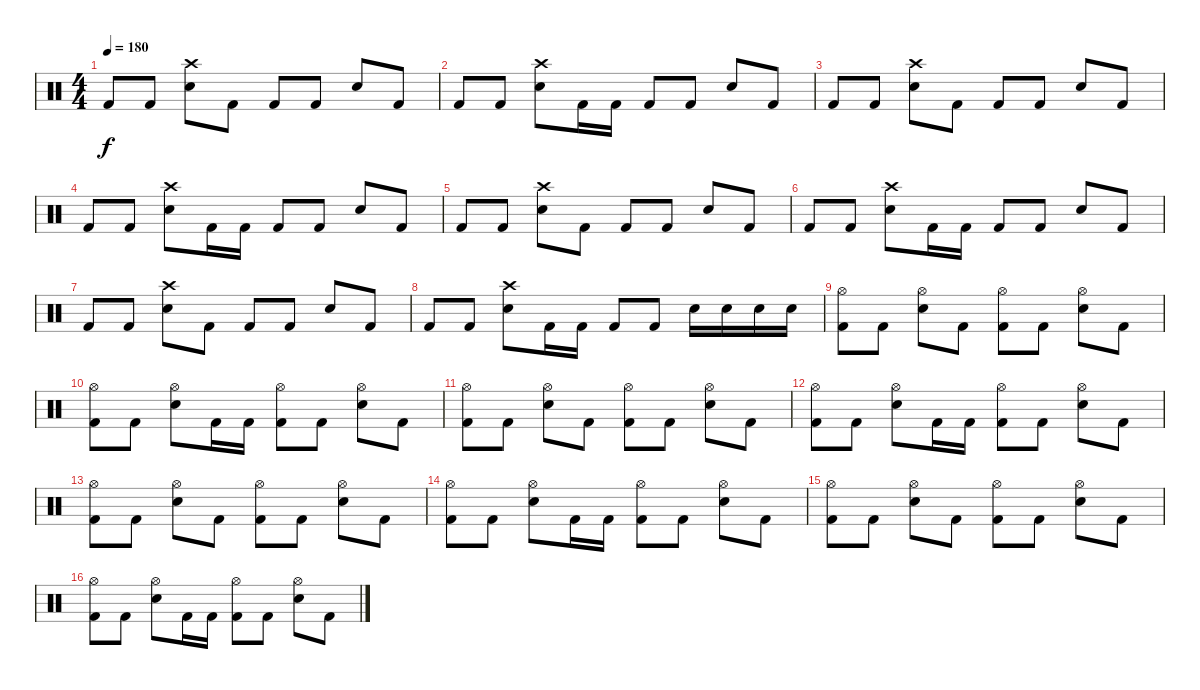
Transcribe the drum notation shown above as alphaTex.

\track "" {instrument percussion}
\staff {score}
\articulation defaults
\ts (4 4)
\tempo 180
\clef neutral
\ks c "Kick (hit) 2".8{dy f} "Kick (hit) 2".8
("Crash high (hit)" "Snare (hit) 2").8 "Kick (hit) 2".8 "Kick (hit) 2".8 "Kick (hit) 2".8 "Snare (hit) 2".8 "Kick (hit) 2".8 |
"Kick (hit) 2".8 "Kick (hit) 2".8 ("Crash high (hit)" "Snare (hit) 2").8 "Kick (hit) 2".16 "Kick (hit) 2".16 "Kick (hit) 2".8 "Kick (hit) 2".8 "Snare (hit) 2".8 "Kick (hit) 2".8 |
"Kick (hit) 2".8 "Kick (hit) 2".8 ("Crash high (hit)" "Snare (hit) 2").8 "Kick (hit) 2".8 "Kick (hit) 2".8 "Kick (hit) 2".8 "Snare (hit) 2".8 "Kick (hit) 2".8 |
"Kick (hit) 2".8 "Kick (hit) 2".8 ("Crash high (hit)" "Snare (hit) 2").8 "Kick (hit) 2".16 "Kick (hit) 2".16 "Kick (hit) 2".8 "Kick (hit) 2".8 "Snare (hit) 2".8 "Kick (hit) 2".8 |
"Kick (hit) 2".8 "Kick (hit) 2".8 ("Crash high (hit)" "Snare (hit) 2").8 "Kick (hit) 2".8 "Kick (hit) 2".8 "Kick (hit) 2".8 "Snare (hit) 2".8 "Kick (hit) 2".8 |
"Kick (hit) 2".8 "Kick (hit) 2".8 ("Crash high (hit)" "Snare (hit) 2").8 "Kick (hit) 2".16 "Kick (hit) 2".16 "Kick (hit) 2".8 "Kick (hit) 2".8 "Snare (hit) 2".8 "Kick (hit) 2".8 |
"Kick (hit) 2".8 "Kick (hit) 2".8 ("Crash high (hit)" "Snare (hit) 2").8 "Kick (hit) 2".8 "Kick (hit) 2".8 "Kick (hit) 2".8 "Snare (hit) 2".8 "Kick (hit) 2".8 |
"Kick (hit) 2".8 "Kick (hit) 2".8 ("Crash high (hit)" "Snare (hit) 2").8 "Kick (hit) 2".16 "Kick (hit) 2".16 "Kick (hit) 2".8 "Kick (hit) 2".8 "Snare (hit) 2".16 "Snare (hit) 2".16 "Snare (hit) 2".16 "Snare (hit) 2".16 |
("Hi-Hat (open)" "Kick (hit) 2").8 "Kick (hit) 2".8 ("Hi-Hat (open)" "Snare (hit) 2").8 "Kick (hit) 2".8 ("Hi-Hat (open)" "Kick (hit) 2").8 "Kick (hit) 2".8 ("Hi-Hat (open)" "Snare (hit) 2").8 "Kick (hit) 2".8 |
("Hi-Hat (open)" "Kick (hit) 2").8 "Kick (hit) 2".8 ("Hi-Hat (open)" "Snare (hit) 2").8 "Kick (hit) 2".16 "Kick (hit) 2".16 ("Hi-Hat (open)" "Kick (hit) 2").8 "Kick (hit) 2".8 ("Hi-Hat (open)" "Snare (hit) 2").8 "Kick (hit) 2".8 |
("Hi-Hat (open)" "Kick (hit) 2").8 "Kick (hit) 2".8 ("Hi-Hat (open)" "Snare (hit) 2").8 "Kick (hit) 2".8 ("Hi-Hat (open)" "Kick (hit) 2").8 "Kick (hit) 2".8 ("Hi-Hat (open)" "Snare (hit) 2").8 "Kick (hit) 2".8 |
("Hi-Hat (open)" "Kick (hit) 2").8 "Kick (hit) 2".8 ("Hi-Hat (open)" "Snare (hit) 2").8 "Kick (hit) 2".16 "Kick (hit) 2".16 ("Hi-Hat (open)" "Kick (hit) 2").8 "Kick (hit) 2".8 ("Hi-Hat (open)" "Snare (hit) 2").8 "Kick (hit) 2".8 |
("Hi-Hat (open)" "Kick (hit) 2").8 "Kick (hit) 2".8 ("Hi-Hat (open)" "Snare (hit) 2").8 "Kick (hit) 2".8 ("Hi-Hat (open)" "Kick (hit) 2").8 "Kick (hit) 2".8 ("Hi-Hat (open)" "Snare (hit) 2").8 "Kick (hit) 2".8 |
("Hi-Hat (open)" "Kick (hit) 2").8 "Kick (hit) 2".8 ("Hi-Hat (open)" "Snare (hit) 2").8 "Kick (hit) 2".16 "Kick (hit) 2".16 ("Hi-Hat (open)" "Kick (hit) 2").8 "Kick (hit) 2".8 ("Hi-Hat (open)" "Snare (hit) 2").8 "Kick (hit) 2".8 |
("Hi-Hat (open)" "Kick (hit) 2").8 "Kick (hit) 2".8 ("Hi-Hat (open)" "Snare (hit) 2").8 "Kick (hit) 2".8 ("Hi-Hat (open)" "Kick (hit) 2").8 "Kick (hit) 2".8 ("Hi-Hat (open)" "Snare (hit) 2").8 "Kick (hit) 2".8 |
("Hi-Hat (open)" "Kick (hit) 2").8 "Kick (hit) 2".8 ("Hi-Hat (open)" "Snare (hit) 2").8 "Kick (hit) 2".16 "Kick (hit) 2".16 ("Hi-Hat (open)" "Kick (hit) 2").8 "Kick (hit) 2".8 ("Hi-Hat (open)" "Snare (hit) 2").8 "Kick (hit) 2".8
